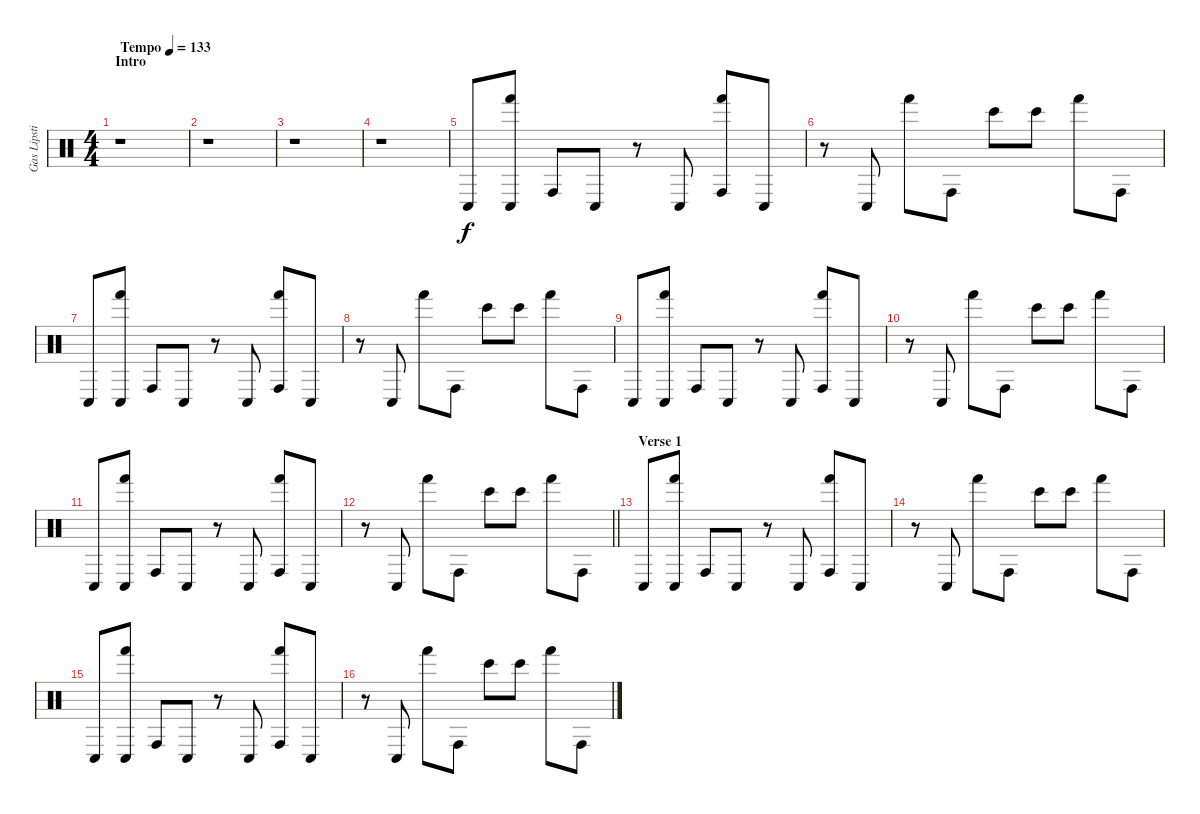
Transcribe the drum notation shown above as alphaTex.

\track ("Gas Lipstick (Drums)" "Gas Lipsti") {instrument percussion}
\staff {score}
\articulation defaults
\ts (4 4)
\section ("" "Intro")
\tempo (133 "Tempo")
\clef neutral
\ks c
r.1{dy f} |
r.1 |
r.1 |
r.1 |
"Conga low (hit)".8 ("Hand (hit)" "Conga low (hit)").8 "Conga high (hit)".8 "Conga low (hit)".8 r.8 "Conga low (hit)".8 ("Hand (hit)" "Conga high (hit)").8 "Conga low (hit)".8 |
r.8 "Conga low (hit)".8 "Hand (hit)".8 "Conga high (hit)".8 "Bongo High (hit)".8 "Bongo High (hit)".8 "Hand (hit)".8 "Conga high (hit)".8 |
"Conga low (hit)".8 ("Hand (hit)" "Conga low (hit)").8 "Conga high (hit)".8 "Conga low (hit)".8 r.8 "Conga low (hit)".8 ("Hand (hit)" "Conga high (hit)").8 "Conga low (hit)".8 |
r.8 "Conga low (hit)".8 "Hand (hit)".8 "Conga high (hit)".8 "Bongo High (hit)".8 "Bongo High (hit)".8 "Hand (hit)".8 "Conga high (hit)".8 |
"Conga low (hit)".8 ("Hand (hit)" "Conga low (hit)").8 "Conga high (hit)".8 "Conga low (hit)".8 r.8 "Conga low (hit)".8 ("Hand (hit)" "Conga high (hit)").8 "Conga low (hit)".8 |
r.8 "Conga low (hit)".8 "Hand (hit)".8 "Conga high (hit)".8 "Bongo High (hit)".8 "Bongo High (hit)".8 "Hand (hit)".8 "Conga high (hit)".8 |
"Conga low (hit)".8 ("Hand (hit)" "Conga low (hit)").8 "Conga high (hit)".8 "Conga low (hit)".8 r.8 "Conga low (hit)".8 ("Hand (hit)" "Conga high (hit)").8 "Conga low (hit)".8 |
\barLineRight lightlight
r.8 "Conga low (hit)".8 "Hand (hit)".8 "Conga high (hit)".8 "Bongo High (hit)".8 "Bongo High (hit)".8 "Hand (hit)".8 "Conga high (hit)".8 |
\section ("" "Verse 1")
"Conga low (hit)".8 ("Hand (hit)" "Conga low (hit)").8 "Conga high (hit)".8 "Conga low (hit)".8 r.8 "Conga low (hit)".8 ("Hand (hit)" "Conga high (hit)").8 "Conga low (hit)".8 |
r.8 "Conga low (hit)".8 "Hand (hit)".8 "Conga high (hit)".8 "Bongo High (hit)".8 "Bongo High (hit)".8 "Hand (hit)".8 "Conga high (hit)".8 |
"Conga low (hit)".8 ("Hand (hit)" "Conga low (hit)").8 "Conga high (hit)".8 "Conga low (hit)".8 r.8 "Conga low (hit)".8 ("Hand (hit)" "Conga high (hit)").8 "Conga low (hit)".8 |
r.8 "Conga low (hit)".8 "Hand (hit)".8 "Conga high (hit)".8 "Bongo High (hit)".8 "Bongo High (hit)".8 "Hand (hit)".8 "Conga high (hit)".8
